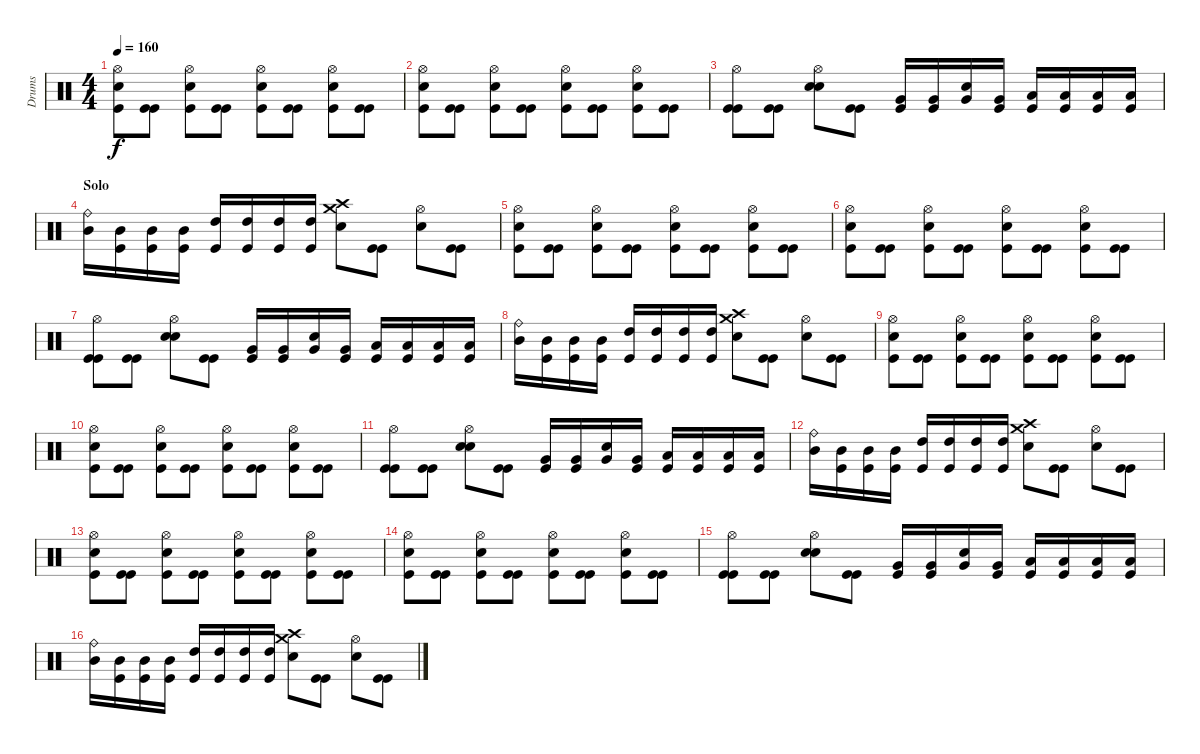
\track ("Drums" "Drums") {instrument percussion}
\staff {score}
\articulation defaults
\ts (4 4)
\tempo 160
\clef neutral
\ks c
("Hi-Hat (open)" "Kick (hit)" "Snare (hit) 2").8{dy f} ("Kick (hit)" "Kick (hit)").8 ("Hi-Hat (open)" "Snare (hit) 2" "Kick (hit)").8 ("Kick (hit)" "Kick (hit)").8 ("Hi-Hat (open)" "Kick (hit)" "Snare (hit) 2").8 ("Kick (hit)" "Kick (hit)").8 ("Hi-Hat (open)" "Snare (hit) 2" "Kick (hit)").8 ("Kick (hit)" "Kick (hit)").8 |
("Hi-Hat (open)" "Kick (hit)" "Snare (hit) 2").8 ("Kick (hit)" "Kick (hit)").8 ("Hi-Hat (open)" "Snare (hit) 2" "Kick (hit)").8 ("Kick (hit)" "Kick (hit)").8 ("Hi-Hat (open)" "Kick (hit)" "Snare (hit) 2").8 ("Kick (hit)" "Kick (hit)").8 ("Hi-Hat (open)" "Snare (hit) 2" "Kick (hit)").8 ("Kick (hit)" "Kick (hit)").8 |
("Hi-Hat (open)" "Kick (hit)" "Kick (hit)").8 ("Kick (hit)" "Kick (hit)").8 ("Hi-Hat (open)" "Snare (hit) 2" "Snare (hit) 2").8 ("Kick (hit)" "Kick (hit)").8 ("Very Low Tom (hit)" "Kick (hit)").16 ("Very Low Tom (hit)" "Kick (hit)").16 ("Very Low Tom (hit)" "Snare (hit) 2").16 ("Very Low Tom (hit)" "Kick (hit)").16 ("Low Tom (hit)" "Kick (hit)").16 ("Low Tom (hit)" "Kick (hit)").16 ("Low Tom (hit)" "Kick (hit)").16 ("Low Tom (hit)" "Kick (hit)").16 |
\section ("" "Solo")
("Mid Tom (hit)" "Ride (bell)").16 ("Mid Tom (hit)" "Kick (hit)").16 ("Mid Tom (hit)" "Kick (hit)").16 ("Mid Tom (hit)" "Kick (hit)").16 ("High Tom (hit)" "Kick (hit)").16 ("High Tom (hit)" "Kick (hit)").16 ("High Tom (hit)" "Kick (hit)").16 ("High Tom (hit)" "Kick (hit)").16 ("Crash high (hit)" "Snare (hit) 2" "Crash medium (hit)").8 ("Kick (hit)" "Kick (hit)").8 ("Hi-Hat (open)" "Snare (hit) 2").8 ("Kick (hit)" "Kick (hit)").8 |
("Hi-Hat (open)" "Kick (hit)" "Snare (hit) 2").8 ("Kick (hit)" "Kick (hit)").8 ("Hi-Hat (open)" "Snare (hit) 2" "Kick (hit)").8 ("Kick (hit)" "Kick (hit)").8 ("Hi-Hat (open)" "Kick (hit)" "Snare (hit) 2").8 ("Kick (hit)" "Kick (hit)").8 ("Hi-Hat (open)" "Snare (hit) 2" "Kick (hit)").8 ("Kick (hit)" "Kick (hit)").8 |
("Hi-Hat (open)" "Kick (hit)" "Snare (hit) 2").8 ("Kick (hit)" "Kick (hit)").8 ("Hi-Hat (open)" "Snare (hit) 2" "Kick (hit)").8 ("Kick (hit)" "Kick (hit)").8 ("Hi-Hat (open)" "Kick (hit)" "Snare (hit) 2").8 ("Kick (hit)" "Kick (hit)").8 ("Hi-Hat (open)" "Snare (hit) 2" "Kick (hit)").8 ("Kick (hit)" "Kick (hit)").8 |
("Hi-Hat (open)" "Kick (hit)" "Kick (hit)").8 ("Kick (hit)" "Kick (hit)").8 ("Hi-Hat (open)" "Snare (hit) 2" "Snare (hit) 2").8 ("Kick (hit)" "Kick (hit)").8 ("Very Low Tom (hit)" "Kick (hit)").16 ("Very Low Tom (hit)" "Kick (hit)").16 ("Very Low Tom (hit)" "Snare (hit) 2").16 ("Very Low Tom (hit)" "Kick (hit)").16 ("Low Tom (hit)" "Kick (hit)").16 ("Low Tom (hit)" "Kick (hit)").16 ("Low Tom (hit)" "Kick (hit)").16 ("Low Tom (hit)" "Kick (hit)").16 |
("Mid Tom (hit)" "Ride (bell)").16 ("Mid Tom (hit)" "Kick (hit)").16 ("Mid Tom (hit)" "Kick (hit)").16 ("Mid Tom (hit)" "Kick (hit)").16 ("High Tom (hit)" "Kick (hit)").16 ("High Tom (hit)" "Kick (hit)").16 ("High Tom (hit)" "Kick (hit)").16 ("High Tom (hit)" "Kick (hit)").16 ("Crash high (hit)" "Snare (hit) 2" "Crash medium (hit)").8 ("Kick (hit)" "Kick (hit)").8 ("Hi-Hat (open)" "Snare (hit) 2").8 ("Kick (hit)" "Kick (hit)").8 |
("Hi-Hat (open)" "Kick (hit)" "Snare (hit) 2").8 ("Kick (hit)" "Kick (hit)").8 ("Hi-Hat (open)" "Snare (hit) 2" "Kick (hit)").8 ("Kick (hit)" "Kick (hit)").8 ("Hi-Hat (open)" "Kick (hit)" "Snare (hit) 2").8 ("Kick (hit)" "Kick (hit)").8 ("Hi-Hat (open)" "Snare (hit) 2" "Kick (hit)").8 ("Kick (hit)" "Kick (hit)").8 |
("Hi-Hat (open)" "Kick (hit)" "Snare (hit) 2").8 ("Kick (hit)" "Kick (hit)").8 ("Hi-Hat (open)" "Snare (hit) 2" "Kick (hit)").8 ("Kick (hit)" "Kick (hit)").8 ("Hi-Hat (open)" "Kick (hit)" "Snare (hit) 2").8 ("Kick (hit)" "Kick (hit)").8 ("Hi-Hat (open)" "Snare (hit) 2" "Kick (hit)").8 ("Kick (hit)" "Kick (hit)").8 |
("Hi-Hat (open)" "Kick (hit)" "Kick (hit)").8 ("Kick (hit)" "Kick (hit)").8 ("Hi-Hat (open)" "Snare (hit) 2" "Snare (hit) 2").8 ("Kick (hit)" "Kick (hit)").8 ("Very Low Tom (hit)" "Kick (hit)").16 ("Very Low Tom (hit)" "Kick (hit)").16 ("Very Low Tom (hit)" "Snare (hit) 2").16 ("Very Low Tom (hit)" "Kick (hit)").16 ("Low Tom (hit)" "Kick (hit)").16 ("Low Tom (hit)" "Kick (hit)").16 ("Low Tom (hit)" "Kick (hit)").16 ("Low Tom (hit)" "Kick (hit)").16 |
("Mid Tom (hit)" "Ride (bell)").16 ("Mid Tom (hit)" "Kick (hit)").16 ("Mid Tom (hit)" "Kick (hit)").16 ("Mid Tom (hit)" "Kick (hit)").16 ("High Tom (hit)" "Kick (hit)").16 ("High Tom (hit)" "Kick (hit)").16 ("High Tom (hit)" "Kick (hit)").16 ("High Tom (hit)" "Kick (hit)").16 ("Crash high (hit)" "Snare (hit) 2" "Crash medium (hit)").8 ("Kick (hit)" "Kick (hit)").8 ("Hi-Hat (open)" "Snare (hit) 2").8 ("Kick (hit)" "Kick (hit)").8 |
("Hi-Hat (open)" "Kick (hit)" "Snare (hit) 2").8 ("Kick (hit)" "Kick (hit)").8 ("Hi-Hat (open)" "Snare (hit) 2" "Kick (hit)").8 ("Kick (hit)" "Kick (hit)").8 ("Hi-Hat (open)" "Kick (hit)" "Snare (hit) 2").8 ("Kick (hit)" "Kick (hit)").8 ("Hi-Hat (open)" "Snare (hit) 2" "Kick (hit)").8 ("Kick (hit)" "Kick (hit)").8 |
("Hi-Hat (open)" "Kick (hit)" "Snare (hit) 2").8 ("Kick (hit)" "Kick (hit)").8 ("Hi-Hat (open)" "Snare (hit) 2" "Kick (hit)").8 ("Kick (hit)" "Kick (hit)").8 ("Hi-Hat (open)" "Kick (hit)" "Snare (hit) 2").8 ("Kick (hit)" "Kick (hit)").8 ("Hi-Hat (open)" "Snare (hit) 2" "Kick (hit)").8 ("Kick (hit)" "Kick (hit)").8 |
("Hi-Hat (open)" "Kick (hit)" "Kick (hit)").8 ("Kick (hit)" "Kick (hit)").8 ("Hi-Hat (open)" "Snare (hit) 2" "Snare (hit) 2").8 ("Kick (hit)" "Kick (hit)").8 ("Very Low Tom (hit)" "Kick (hit)").16 ("Very Low Tom (hit)" "Kick (hit)").16 ("Very Low Tom (hit)" "Snare (hit) 2").16 ("Very Low Tom (hit)" "Kick (hit)").16 ("Low Tom (hit)" "Kick (hit)").16 ("Low Tom (hit)" "Kick (hit)").16 ("Low Tom (hit)" "Kick (hit)").16 ("Low Tom (hit)" "Kick (hit)").16 |
("Mid Tom (hit)" "Ride (bell)").16 ("Mid Tom (hit)" "Kick (hit)").16 ("Mid Tom (hit)" "Kick (hit)").16 ("Mid Tom (hit)" "Kick (hit)").16 ("High Tom (hit)" "Kick (hit)").16 ("High Tom (hit)" "Kick (hit)").16 ("High Tom (hit)" "Kick (hit)").16 ("High Tom (hit)" "Kick (hit)").16 ("Crash high (hit)" "Snare (hit) 2" "Crash medium (hit)").8 ("Kick (hit)" "Kick (hit)").8 ("Hi-Hat (open)" "Snare (hit) 2").8 ("Kick (hit)" "Kick (hit)").8
